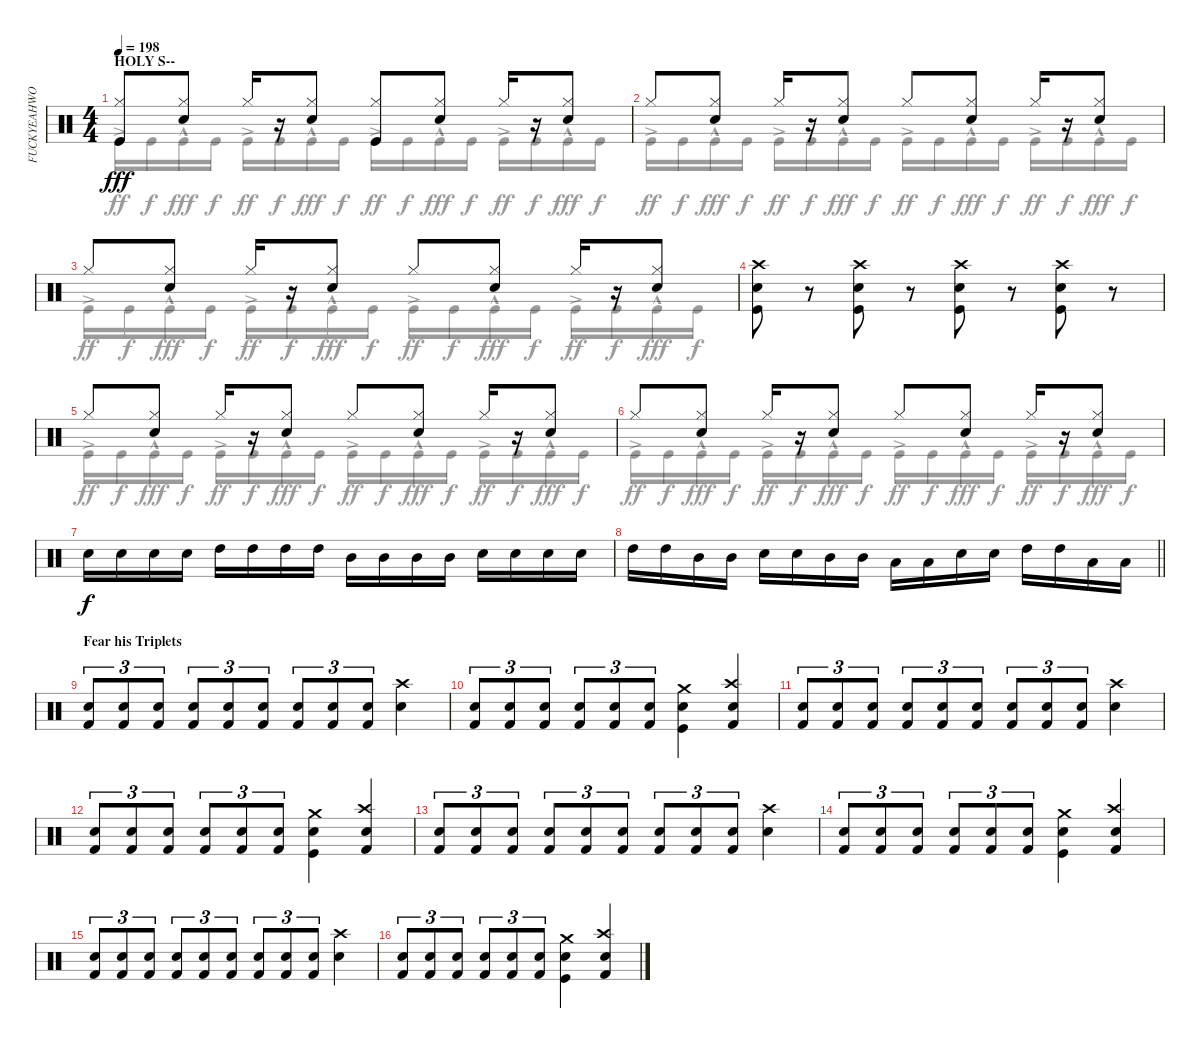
\track ("FUCKYEAHWOOTDAVEMACKINTOSH!(Percussion)" "FUCKYEAHWO") {instrument percussion}
\staff {score}
\articulation defaults
\voice
\ts (4 4)
\section ("" "HOLY S--")
\tempo 198
\clef neutral
\ks c
("Kick (hit)" "Hi-Hat (closed)").8{dy fff} ("Snare (hit) 2" "Hi-Hat (closed)").8 "Hi-Hat (closed)".16 r.16 ("Hi-Hat (closed)" "Snare (hit) 2").8 ("Kick (hit)" "Hi-Hat (closed)").8 ("Snare (hit) 2" "Hi-Hat (closed)").8 "Hi-Hat (closed)".16 r.16 ("Snare (hit) 2" "Hi-Hat (closed)").8 |
"Hi-Hat (closed)".8 ("Snare (hit) 2" "Hi-Hat (closed)").8 "Hi-Hat (closed)".16 r.16 ("Hi-Hat (closed)" "Snare (hit) 2").8 "Hi-Hat (closed)".8 ("Snare (hit) 2" "Hi-Hat (closed)").8 "Hi-Hat (closed)".16 r.16 ("Snare (hit) 2" "Hi-Hat (closed)").8 |
"Hi-Hat (closed)".8 ("Snare (hit) 2" "Hi-Hat (closed)").8 "Hi-Hat (closed)".16 r.16 ("Hi-Hat (closed)" "Snare (hit) 2").8 "Hi-Hat (closed)".8 ("Snare (hit) 2" "Hi-Hat (closed)").8 "Hi-Hat (closed)".16 r.16 ("Snare (hit) 2" "Hi-Hat (closed)").8 |
("Snare (hit) 2" "Kick (hit)" "Crash high (hit)").8 r.8 ("Crash high (hit)" "Kick (hit)" "Snare (hit) 2").8 r.8 ("Snare (hit) 2" "Kick (hit)" "Crash high (hit)").8 r.8 ("Kick (hit)" "Crash high (hit)" "Snare (hit) 2").8 r.8 |
"Hi-Hat (closed)".8 ("Snare (hit) 2" "Hi-Hat (closed)").8 "Hi-Hat (closed)".16 r.16 ("Hi-Hat (closed)" "Snare (hit) 2").8 "Hi-Hat (closed)".8 ("Snare (hit) 2" "Hi-Hat (closed)").8 "Hi-Hat (closed)".16 r.16 ("Snare (hit) 2" "Hi-Hat (closed)").8 |
"Hi-Hat (closed)".8 ("Snare (hit) 2" "Hi-Hat (closed)").8 "Hi-Hat (closed)".16 r.16 ("Hi-Hat (closed)" "Snare (hit) 2").8 "Hi-Hat (closed)".8 ("Snare (hit) 2" "Hi-Hat (closed)").8 "Hi-Hat (closed)".16 r.16 ("Snare (hit) 2" "Hi-Hat (closed)").8 |
"Snare (hit) 2".16{dy f} "Snare (hit) 2".16 "Snare (hit) 2".16 "Snare (hit) 2".16 "High Tom (hit)".16 "High Tom (hit)".16 "High Tom (hit)".16 "High Tom (hit)".16 "Mid Tom (hit)".16 "Mid Tom (hit)".16 "Mid Tom (hit)".16 "Mid Tom (hit)".16 "Snare (hit) 2".16 "Snare (hit) 2".16 "Snare (hit) 2".16 "Snare (hit) 2".16 |
\barLineRight lightlight "High Tom (hit)".16 "High Tom (hit)".16 "Mid Tom (hit)".16 "Mid Tom (hit)".16 "Snare (hit) 2".16 "Snare (hit) 2".16 "Mid Tom (hit)".16 "Mid Tom (hit)".16 "Low Tom (hit)".16 "Low Tom (hit)".16 "Snare (hit) 2".16 "Snare (hit) 2".16 "High Tom (hit)".16 "High Tom (hit)".16 "Low Tom (hit)".16 "Low Tom (hit)".16
|
\section ("" "Fear his Triplets")
("Snare (hit) 2" "Kick (hit) 2").8{tu (3 2)} ("Snare (hit) 2" "Kick (hit) 2").8{tu (3 2)} ("Snare (hit) 2" "Kick (hit) 2").8{tu (3 2)} ("Snare (hit) 2" "Kick (hit) 2").8{tu (3 2)} ("Snare (hit) 2" "Kick (hit) 2").8{tu (3 2)} ("Snare (hit) 2" "Kick (hit) 2").8{tu (3 2)} ("Snare (hit) 2" "Kick (hit) 2").8{tu (3 2)} ("Snare (hit) 2" "Kick (hit) 2").8{tu (3 2)} ("Snare (hit) 2" "Kick (hit) 2").8{tu (3 2)} ("Snare (hit) 2" "Crash high (hit)").4 |
("Snare (hit) 2" "Kick (hit) 2").8{tu (3 2)} ("Snare (hit) 2" "Kick (hit) 2").8{tu (3 2)} ("Snare (hit) 2" "Kick (hit) 2").8{tu (3 2)} ("Snare (hit) 2" "Kick (hit) 2").8{tu (3 2)} ("Snare (hit) 2" "Kick (hit) 2").8{tu (3 2)} ("Snare (hit) 2" "Kick (hit) 2").8{tu (3 2)} ("Crash medium (hit)" "Snare (hit) 2" "Kick (hit)").4 ("Crash high (hit)" "Kick (hit) 2" "Snare (hit) 2").4 |
("Snare (hit) 2" "Kick (hit) 2").8{tu (3 2)} ("Snare (hit) 2" "Kick (hit) 2").8{tu (3 2)} ("Snare (hit) 2" "Kick (hit) 2").8{tu (3 2)} ("Snare (hit) 2" "Kick (hit) 2").8{tu (3 2)} ("Snare (hit) 2" "Kick (hit) 2").8{tu (3 2)} ("Snare (hit) 2" "Kick (hit) 2").8{tu (3 2)} ("Snare (hit) 2" "Kick (hit) 2").8{tu (3 2)} ("Snare (hit) 2" "Kick (hit) 2").8{tu (3 2)} ("Snare (hit) 2" "Kick (hit) 2").8{tu (3 2)} ("Snare (hit) 2" "Crash high (hit)").4 |
("Snare (hit) 2" "Kick (hit) 2").8{tu (3 2)} ("Snare (hit) 2" "Kick (hit) 2").8{tu (3 2)} ("Snare (hit) 2" "Kick (hit) 2").8{tu (3 2)} ("Snare (hit) 2" "Kick (hit) 2").8{tu (3 2)} ("Snare (hit) 2" "Kick (hit) 2").8{tu (3 2)} ("Snare (hit) 2" "Kick (hit) 2").8{tu (3 2)} ("Crash medium (hit)" "Snare (hit) 2" "Kick (hit)").4 ("Crash high (hit)" "Kick (hit) 2" "Snare (hit) 2").4 |
("Snare (hit) 2" "Kick (hit) 2").8{tu (3 2)} ("Snare (hit) 2" "Kick (hit) 2").8{tu (3 2)} ("Snare (hit) 2" "Kick (hit) 2").8{tu (3 2)} ("Snare (hit) 2" "Kick (hit) 2").8{tu (3 2)} ("Snare (hit) 2" "Kick (hit) 2").8{tu (3 2)} ("Snare (hit) 2" "Kick (hit) 2").8{tu (3 2)} ("Snare (hit) 2" "Kick (hit) 2").8{tu (3 2)} ("Snare (hit) 2" "Kick (hit) 2").8{tu (3 2)} ("Snare (hit) 2" "Kick (hit) 2").8{tu (3 2)} ("Snare (hit) 2" "Crash high (hit)").4 |
("Snare (hit) 2" "Kick (hit) 2").8{tu (3 2)} ("Snare (hit) 2" "Kick (hit) 2").8{tu (3 2)} ("Snare (hit) 2" "Kick (hit) 2").8{tu (3 2)} ("Snare (hit) 2" "Kick (hit) 2").8{tu (3 2)} ("Snare (hit) 2" "Kick (hit) 2").8{tu (3 2)} ("Snare (hit) 2" "Kick (hit) 2").8{tu (3 2)} ("Crash medium (hit)" "Snare (hit) 2" "Kick (hit)").4 ("Crash high (hit)" "Kick (hit) 2" "Snare (hit) 2").4 |
("Snare (hit) 2" "Kick (hit) 2").8{tu (3 2)} ("Snare (hit) 2" "Kick (hit) 2").8{tu (3 2)} ("Snare (hit) 2" "Kick (hit) 2").8{tu (3 2)} ("Snare (hit) 2" "Kick (hit) 2").8{tu (3 2)} ("Snare (hit) 2" "Kick (hit) 2").8{tu (3 2)} ("Snare (hit) 2" "Kick (hit) 2").8{tu (3 2)} ("Snare (hit) 2" "Kick (hit) 2").8{tu (3 2)} ("Snare (hit) 2" "Kick (hit) 2").8{tu (3 2)} ("Snare (hit) 2" "Kick (hit) 2").8{tu (3 2)} ("Snare (hit) 2" "Crash high (hit)").4 |
("Snare (hit) 2" "Kick (hit) 2").8{tu (3 2)} ("Snare (hit) 2" "Kick (hit) 2").8{tu (3 2)} ("Snare (hit) 2" "Kick (hit) 2").8{tu (3 2)} ("Snare (hit) 2" "Kick (hit) 2").8{tu (3 2)} ("Snare (hit) 2" "Kick (hit) 2").8{tu (3 2)} ("Snare (hit) 2" "Kick (hit) 2").8{tu (3 2)} ("Crash medium (hit)" "Snare (hit) 2" "Kick (hit)").4 ("Crash high (hit)" "Kick (hit) 2" "Snare (hit) 2").4
\voice
\clef neutral
\ottava regular
\simile none
\ks c "Kick (hit)"{ac}.16{dy ff} "Kick (hit)".16{dy f} "Kick (hit)"{hac}.16{dy fff} "Kick (hit)".16{dy f} "Kick (hit)"{ac}.16{dy ff} "Kick (hit)".16{dy f} "Kick (hit)"{hac}.16{dy fff} "Kick (hit)".16{dy f} "Kick (hit)"{ac}.16{dy ff} "Kick (hit)".16{dy f} "Kick (hit)"{hac}.16{dy fff} "Kick (hit)".16{dy f} "Kick (hit)"{ac}.16{dy ff} "Kick (hit)".16{dy f} "Kick (hit)"{hac}.16{dy fff} "Kick (hit)".16{dy f}
|
"Kick (hit)"{ac}.16{dy ff} "Kick (hit)".16{dy f} "Kick (hit)"{hac}.16{dy fff} "Kick (hit)".16{dy f} "Kick (hit)"{ac}.16{dy ff} "Kick (hit)".16{dy f} "Kick (hit)"{hac}.16{dy fff} "Kick (hit)".16{dy f} "Kick (hit)"{ac}.16{dy ff} "Kick (hit)".16{dy f} "Kick (hit)"{hac}.16{dy fff} "Kick (hit)".16{dy f} "Kick (hit)"{ac}.16{dy ff} "Kick (hit)".16{dy f} "Kick (hit)"{hac}.16{dy fff} "Kick (hit)".16{dy f} |
"Kick (hit)"{ac}.16{dy ff} "Kick (hit)".16{dy f} "Kick (hit)"{hac}.16{dy fff} "Kick (hit)".16{dy f} "Kick (hit)"{ac}.16{dy ff} "Kick (hit)".16{dy f} "Kick (hit)"{hac}.16{dy fff} "Kick (hit)".16{dy f} "Kick (hit)"{ac}.16{dy ff} "Kick (hit)".16{dy f} "Kick (hit)"{hac}.16{dy fff} "Kick (hit)".16{dy f} "Kick (hit)"{ac}.16{dy ff} "Kick (hit)".16{dy f} "Kick (hit)"{hac}.16{dy fff} "Kick (hit)".16{dy f} |
|
"Kick (hit)"{ac}.16{dy ff} "Kick (hit)".16{dy f} "Kick (hit)"{hac}.16{dy fff} "Kick (hit)".16{dy f} "Kick (hit)"{ac}.16{dy ff} "Kick (hit)".16{dy f} "Kick (hit)"{hac}.16{dy fff} "Kick (hit)".16{dy f} "Kick (hit)"{ac}.16{dy ff} "Kick (hit)".16{dy f} "Kick (hit)"{hac}.16{dy fff} "Kick (hit)".16{dy f} "Kick (hit)"{ac}.16{dy ff} "Kick (hit)".16{dy f} "Kick (hit)"{hac}.16{dy fff} "Kick (hit)".16{dy f} |
"Kick (hit)"{ac}.16{dy ff} "Kick (hit)".16{dy f} "Kick (hit)"{hac}.16{dy fff} "Kick (hit)".16{dy f} "Kick (hit)"{ac}.16{dy ff} "Kick (hit)".16{dy f} "Kick (hit)"{hac}.16{dy fff} "Kick (hit)".16{dy f} "Kick (hit)"{ac}.16{dy ff} "Kick (hit)".16{dy f} "Kick (hit)"{hac}.16{dy fff} "Kick (hit)".16{dy f} "Kick (hit)"{ac}.16{dy ff} "Kick (hit)".16{dy f} "Kick (hit)"{hac}.16{dy fff} "Kick (hit)".16{dy f} |
|
\barLineRight lightlight
|
|
|
|
|
|
|
|
